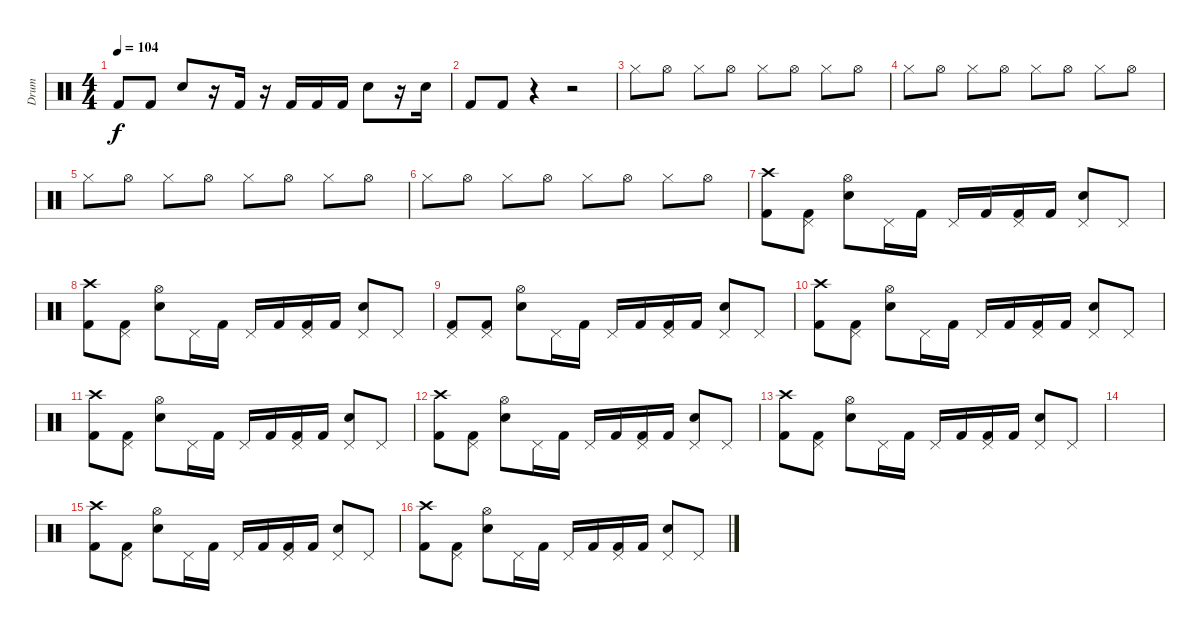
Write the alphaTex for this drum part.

\track ("Drum" "Drum") {instrument percussion}
\staff {score}
\articulation defaults
\ts (4 4)
\tempo 104
\clef neutral
\ks c "Kick (hit) 2".8{dy f} "Kick (hit) 2".8 "Snare (hit) 2".8
r.16 "Kick (hit) 2".16 r.16 "Kick (hit) 2".16 "Kick (hit) 2".16 "Kick (hit) 2".16 "Snare (hit) 2".8 r.16 "Snare (hit) 2".16 |
"Kick (hit) 2".8 "Kick (hit) 2".8 r.4 r.2 |
"Hi-Hat (closed)".8 "Hi-Hat (open)".8 "Hi-Hat (closed)".8 "Hi-Hat (open)".8 "Hi-Hat (closed)".8 "Hi-Hat (open)".8 "Hi-Hat (closed)".8 "Hi-Hat (open)".8 |
"Hi-Hat (closed)".8 "Hi-Hat (open)".8 "Hi-Hat (closed)".8 "Hi-Hat (open)".8 "Hi-Hat (closed)".8 "Hi-Hat (open)".8 "Hi-Hat (closed)".8 "Hi-Hat (open)".8 |
"Hi-Hat (closed)".8 "Hi-Hat (open)".8 "Hi-Hat (closed)".8 "Hi-Hat (open)".8 "Hi-Hat (closed)".8 "Hi-Hat (open)".8 "Hi-Hat (closed)".8 "Hi-Hat (open)".8 |
"Hi-Hat (closed)".8 "Hi-Hat (open)".8 "Hi-Hat (closed)".8 "Hi-Hat (open)".8 "Hi-Hat (closed)".8 "Hi-Hat (open)".8 "Hi-Hat (closed)".8 "Hi-Hat (open)".8 |
("Crash high (hit)" "Kick (hit) 2").8 ("Pedal Hi-Hat (hit)" "Kick (hit) 2").8 ("Hi-Hat (open)" "Snare (hit) 2").8 "Pedal Hi-Hat (hit)".16 "Kick (hit) 2".16 "Pedal Hi-Hat (hit)".16 "Kick (hit) 2".16 ("Pedal Hi-Hat (hit)" "Kick (hit) 2").16 "Kick (hit) 2".16 ("Pedal Hi-Hat (hit)" "Snare (hit) 2").8 "Pedal Hi-Hat (hit)".8 |
("Crash high (hit)" "Kick (hit) 2").8 ("Pedal Hi-Hat (hit)" "Kick (hit) 2").8 ("Hi-Hat (open)" "Snare (hit) 2").8 "Pedal Hi-Hat (hit)".16 "Kick (hit) 2".16 "Pedal Hi-Hat (hit)".16 "Kick (hit) 2".16 ("Pedal Hi-Hat (hit)" "Kick (hit) 2").16 "Kick (hit) 2".16 ("Pedal Hi-Hat (hit)" "Snare (hit) 2").8 "Pedal Hi-Hat (hit)".8 |
("Pedal Hi-Hat (hit)" "Kick (hit) 2").8 ("Pedal Hi-Hat (hit)" "Kick (hit) 2").8 ("Hi-Hat (open)" "Snare (hit) 2").8 "Pedal Hi-Hat (hit)".16 "Kick (hit) 2".16 "Pedal Hi-Hat (hit)".16 "Kick (hit) 2".16 ("Pedal Hi-Hat (hit)" "Kick (hit) 2").16 "Kick (hit) 2".16 ("Pedal Hi-Hat (hit)" "Snare (hit) 2").8 "Pedal Hi-Hat (hit)".8 |
("Crash high (hit)" "Kick (hit) 2").8 ("Pedal Hi-Hat (hit)" "Kick (hit) 2").8 ("Hi-Hat (open)" "Snare (hit) 2").8 "Pedal Hi-Hat (hit)".16 "Kick (hit) 2".16 "Pedal Hi-Hat (hit)".16 "Kick (hit) 2".16 ("Pedal Hi-Hat (hit)" "Kick (hit) 2").16 "Kick (hit) 2".16 ("Pedal Hi-Hat (hit)" "Snare (hit) 2").8 "Pedal Hi-Hat (hit)".8 |
("Crash high (hit)" "Kick (hit) 2").8 ("Pedal Hi-Hat (hit)" "Kick (hit) 2").8 ("Hi-Hat (open)" "Snare (hit) 2").8 "Pedal Hi-Hat (hit)".16 "Kick (hit) 2".16 "Pedal Hi-Hat (hit)".16 "Kick (hit) 2".16 ("Pedal Hi-Hat (hit)" "Kick (hit) 2").16 "Kick (hit) 2".16 ("Pedal Hi-Hat (hit)" "Snare (hit) 2").8 "Pedal Hi-Hat (hit)".8 |
("Crash high (hit)" "Kick (hit) 2").8 ("Pedal Hi-Hat (hit)" "Kick (hit) 2").8 ("Hi-Hat (open)" "Snare (hit) 2").8 "Pedal Hi-Hat (hit)".16 "Kick (hit) 2".16 "Pedal Hi-Hat (hit)".16 "Kick (hit) 2".16 ("Pedal Hi-Hat (hit)" "Kick (hit) 2").16 "Kick (hit) 2".16 ("Pedal Hi-Hat (hit)" "Snare (hit) 2").8 "Pedal Hi-Hat (hit)".8 |
("Crash high (hit)" "Kick (hit) 2").8 ("Pedal Hi-Hat (hit)" "Kick (hit) 2").8 ("Hi-Hat (open)" "Snare (hit) 2").8 "Pedal Hi-Hat (hit)".16 "Kick (hit) 2".16 "Pedal Hi-Hat (hit)".16 "Kick (hit) 2".16 ("Pedal Hi-Hat (hit)" "Kick (hit) 2").16 "Kick (hit) 2".16 ("Pedal Hi-Hat (hit)" "Snare (hit) 2").8 "Pedal Hi-Hat (hit)".8 |
|
("Crash high (hit)" "Kick (hit) 2").8 ("Pedal Hi-Hat (hit)" "Kick (hit) 2").8 ("Hi-Hat (open)" "Snare (hit) 2").8 "Pedal Hi-Hat (hit)".16 "Kick (hit) 2".16 "Pedal Hi-Hat (hit)".16 "Kick (hit) 2".16 ("Pedal Hi-Hat (hit)" "Kick (hit) 2").16 "Kick (hit) 2".16 ("Pedal Hi-Hat (hit)" "Snare (hit) 2").8 "Pedal Hi-Hat (hit)".8 |
("Crash high (hit)" "Kick (hit) 2").8 ("Pedal Hi-Hat (hit)" "Kick (hit) 2").8 ("Hi-Hat (open)" "Snare (hit) 2").8 "Pedal Hi-Hat (hit)".16 "Kick (hit) 2".16 "Pedal Hi-Hat (hit)".16 "Kick (hit) 2".16 ("Pedal Hi-Hat (hit)" "Kick (hit) 2").16 "Kick (hit) 2".16 ("Pedal Hi-Hat (hit)" "Snare (hit) 2").8 "Pedal Hi-Hat (hit)".8
